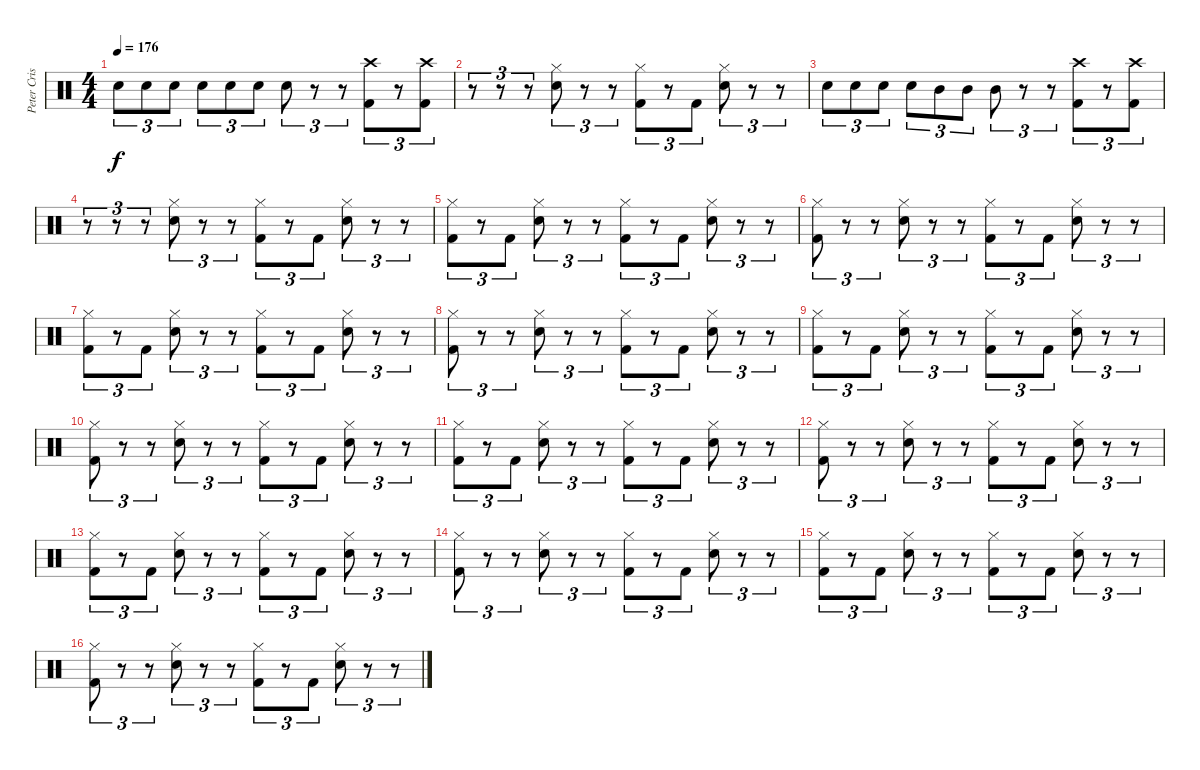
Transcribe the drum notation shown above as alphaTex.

\track ("Peter Criss" "Peter Cris") {instrument percussion}
\staff {score}
\articulation defaults
\ts (4 4)
\tempo 176
\clef neutral
\ks c "Electric Snare (hit)".8{tu (3 2) dy f} "Electric Snare (hit)".8{tu (3 2)} "Electric Snare (hit)".8{tu (3 2)} "Electric Snare (hit)".8{tu (3 2)} "Electric Snare (hit)".8{tu (3 2)} "Electric Snare (hit)".8{tu (3 2)} "Electric Snare (hit)".8{tu (3 2)}
r.8{tu (3 2)} r.8{tu (3 2)} ("Crash high (hit)" "Kick (hit) 2").8{tu (3 2)} r.8{tu (3 2)} ("Crash high (hit)" "Kick (hit) 2").8{tu (3 2)} |
r.8{tu (3 2)} r.8{tu (3 2)} r.8{tu (3 2)} ("Hi-Hat (closed)" "Electric Snare (hit)").8{tu (3 2)} r.8{tu (3 2)} r.8{tu (3 2)} ("Hi-Hat (closed)" "Kick (hit) 2").8{tu (3 2)} r.8{tu (3 2)} "Kick (hit) 2".8{tu (3 2)} ("Hi-Hat (closed)" "Electric Snare (hit)").8{tu (3 2)} r.8{tu (3 2)} r.8{tu (3 2)} |
"Electric Snare (hit)".8{tu (3 2)} "Electric Snare (hit)".8{tu (3 2)} "Electric Snare (hit)".8{tu (3 2)} "Electric Snare (hit)".8{tu (3 2)} "Mid Tom (hit)".8{tu (3 2)} "Mid Tom (hit)".8{tu (3 2)} "Mid Tom (hit)".8{tu (3 2)} r.8{tu (3 2)} r.8{tu (3 2)} ("Crash high (hit)" "Kick (hit) 2").8{tu (3 2)} r.8{tu (3 2)} ("Crash high (hit)" "Kick (hit) 2").8{tu (3 2)} |
r.8{tu (3 2)} r.8{tu (3 2)} r.8{tu (3 2)} ("Hi-Hat (closed)" "Electric Snare (hit)").8{tu (3 2)} r.8{tu (3 2)} r.8{tu (3 2)} ("Hi-Hat (closed)" "Kick (hit) 2").8{tu (3 2)} r.8{tu (3 2)} "Kick (hit) 2".8{tu (3 2)} ("Hi-Hat (closed)" "Electric Snare (hit)").8{tu (3 2)} r.8{tu (3 2)} r.8{tu (3 2)} |
("Hi-Hat (closed)" "Kick (hit) 2").8{tu (3 2)} r.8{tu (3 2)} "Kick (hit) 2".8{tu (3 2)} ("Hi-Hat (closed)" "Electric Snare (hit)").8{tu (3 2)} r.8{tu (3 2)} r.8{tu (3 2)} ("Hi-Hat (closed)" "Kick (hit) 2").8{tu (3 2)} r.8{tu (3 2)} "Kick (hit) 2".8{tu (3 2)} ("Hi-Hat (closed)" "Electric Snare (hit)").8{tu (3 2)} r.8{tu (3 2)} r.8{tu (3 2)} |
("Hi-Hat (closed)" "Kick (hit) 2").8{tu (3 2)} r.8{tu (3 2)} r.8{tu (3 2)} ("Hi-Hat (closed)" "Electric Snare (hit)").8{tu (3 2)} r.8{tu (3 2)} r.8{tu (3 2)} ("Hi-Hat (closed)" "Kick (hit) 2").8{tu (3 2)} r.8{tu (3 2)} "Kick (hit) 2".8{tu (3 2)} ("Hi-Hat (closed)" "Electric Snare (hit)").8{tu (3 2)} r.8{tu (3 2)} r.8{tu (3 2)} |
("Hi-Hat (closed)" "Kick (hit) 2").8{tu (3 2)} r.8{tu (3 2)} "Kick (hit) 2".8{tu (3 2)} ("Hi-Hat (closed)" "Electric Snare (hit)").8{tu (3 2)} r.8{tu (3 2)} r.8{tu (3 2)} ("Hi-Hat (closed)" "Kick (hit) 2").8{tu (3 2)} r.8{tu (3 2)} "Kick (hit) 2".8{tu (3 2)} ("Hi-Hat (closed)" "Electric Snare (hit)").8{tu (3 2)} r.8{tu (3 2)} r.8{tu (3 2)} |
("Hi-Hat (closed)" "Kick (hit) 2").8{tu (3 2)} r.8{tu (3 2)} r.8{tu (3 2)} ("Hi-Hat (closed)" "Electric Snare (hit)").8{tu (3 2)} r.8{tu (3 2)} r.8{tu (3 2)} ("Hi-Hat (closed)" "Kick (hit) 2").8{tu (3 2)} r.8{tu (3 2)} "Kick (hit) 2".8{tu (3 2)} ("Hi-Hat (closed)" "Electric Snare (hit)").8{tu (3 2)} r.8{tu (3 2)} r.8{tu (3 2)} |
("Hi-Hat (closed)" "Kick (hit) 2").8{tu (3 2)} r.8{tu (3 2)} "Kick (hit) 2".8{tu (3 2)} ("Hi-Hat (closed)" "Electric Snare (hit)").8{tu (3 2)} r.8{tu (3 2)} r.8{tu (3 2)} ("Hi-Hat (closed)" "Kick (hit) 2").8{tu (3 2)} r.8{tu (3 2)} "Kick (hit) 2".8{tu (3 2)} ("Hi-Hat (closed)" "Electric Snare (hit)").8{tu (3 2)} r.8{tu (3 2)} r.8{tu (3 2)} |
("Hi-Hat (closed)" "Kick (hit) 2").8{tu (3 2)} r.8{tu (3 2)} r.8{tu (3 2)} ("Hi-Hat (closed)" "Electric Snare (hit)").8{tu (3 2)} r.8{tu (3 2)} r.8{tu (3 2)} ("Hi-Hat (closed)" "Kick (hit) 2").8{tu (3 2)} r.8{tu (3 2)} "Kick (hit) 2".8{tu (3 2)} ("Hi-Hat (closed)" "Electric Snare (hit)").8{tu (3 2)} r.8{tu (3 2)} r.8{tu (3 2)} |
("Hi-Hat (closed)" "Kick (hit) 2").8{tu (3 2)} r.8{tu (3 2)} "Kick (hit) 2".8{tu (3 2)} ("Hi-Hat (closed)" "Electric Snare (hit)").8{tu (3 2)} r.8{tu (3 2)} r.8{tu (3 2)} ("Hi-Hat (closed)" "Kick (hit) 2").8{tu (3 2)} r.8{tu (3 2)} "Kick (hit) 2".8{tu (3 2)} ("Hi-Hat (closed)" "Electric Snare (hit)").8{tu (3 2)} r.8{tu (3 2)} r.8{tu (3 2)} |
("Hi-Hat (closed)" "Kick (hit) 2").8{tu (3 2)} r.8{tu (3 2)} r.8{tu (3 2)} ("Hi-Hat (closed)" "Electric Snare (hit)").8{tu (3 2)} r.8{tu (3 2)} r.8{tu (3 2)} ("Hi-Hat (closed)" "Kick (hit) 2").8{tu (3 2)} r.8{tu (3 2)} "Kick (hit) 2".8{tu (3 2)} ("Hi-Hat (closed)" "Electric Snare (hit)").8{tu (3 2)} r.8{tu (3 2)} r.8{tu (3 2)} |
("Hi-Hat (closed)" "Kick (hit) 2").8{tu (3 2)} r.8{tu (3 2)} "Kick (hit) 2".8{tu (3 2)} ("Hi-Hat (closed)" "Electric Snare (hit)").8{tu (3 2)} r.8{tu (3 2)} r.8{tu (3 2)} ("Hi-Hat (closed)" "Kick (hit) 2").8{tu (3 2)} r.8{tu (3 2)} "Kick (hit) 2".8{tu (3 2)} ("Hi-Hat (closed)" "Electric Snare (hit)").8{tu (3 2)} r.8{tu (3 2)} r.8{tu (3 2)} |
("Hi-Hat (closed)" "Kick (hit) 2").8{tu (3 2)} r.8{tu (3 2)} r.8{tu (3 2)} ("Hi-Hat (closed)" "Electric Snare (hit)").8{tu (3 2)} r.8{tu (3 2)} r.8{tu (3 2)} ("Hi-Hat (closed)" "Kick (hit) 2").8{tu (3 2)} r.8{tu (3 2)} "Kick (hit) 2".8{tu (3 2)} ("Hi-Hat (closed)" "Electric Snare (hit)").8{tu (3 2)} r.8{tu (3 2)} r.8{tu (3 2)} |
("Hi-Hat (closed)" "Kick (hit) 2").8{tu (3 2)} r.8{tu (3 2)} "Kick (hit) 2".8{tu (3 2)} ("Hi-Hat (closed)" "Electric Snare (hit)").8{tu (3 2)} r.8{tu (3 2)} r.8{tu (3 2)} ("Hi-Hat (closed)" "Kick (hit) 2").8{tu (3 2)} r.8{tu (3 2)} "Kick (hit) 2".8{tu (3 2)} ("Hi-Hat (closed)" "Electric Snare (hit)").8{tu (3 2)} r.8{tu (3 2)} r.8{tu (3 2)} |
("Hi-Hat (closed)" "Kick (hit) 2").8{tu (3 2)} r.8{tu (3 2)} r.8{tu (3 2)} ("Hi-Hat (closed)" "Electric Snare (hit)").8{tu (3 2)} r.8{tu (3 2)} r.8{tu (3 2)} ("Hi-Hat (closed)" "Kick (hit) 2").8{tu (3 2)} r.8{tu (3 2)} "Kick (hit) 2".8{tu (3 2)} ("Hi-Hat (closed)" "Electric Snare (hit)").8{tu (3 2)} r.8{tu (3 2)} r.8{tu (3 2)}
